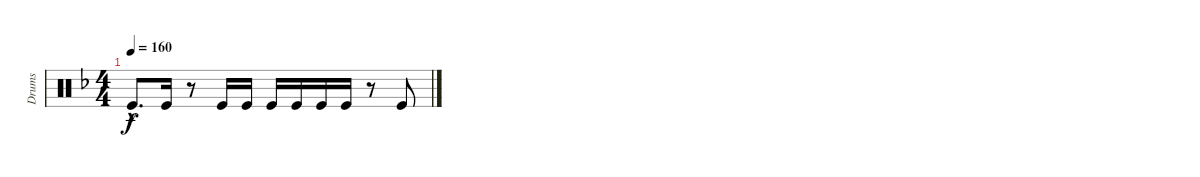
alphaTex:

\track ("Drums" "Drums") {instrument percussion}
\staff {score}
\articulation defaults
\ts (4 4)
\tempo 160
\clef neutral
\ks f "Kick (hit)"{hac}.8{d dy f} "Kick (hit)".16
r.8 "Kick (hit)".16 "Kick (hit)".16 "Kick (hit)".16 "Kick (hit)".16 "Kick (hit)".16 "Kick (hit)".16 r.8 "Kick (hit)".8
